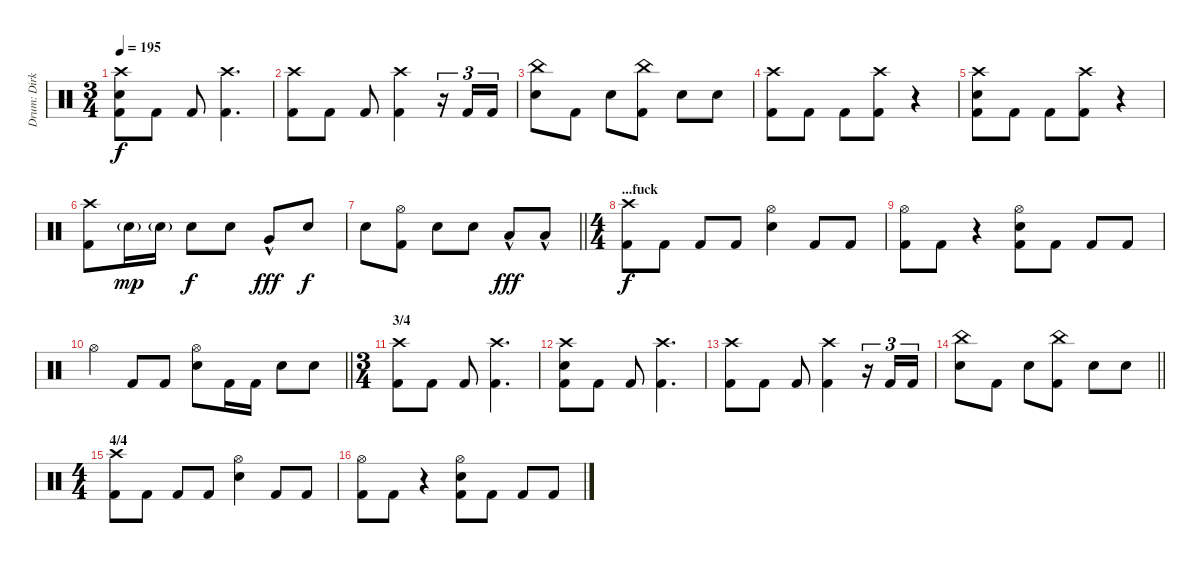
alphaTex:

\track ("Drum: Dirk" "Drum: Dirk") {instrument percussion}
\staff {score}
\articulation defaults
\ts (3 4)
\tempo 195
\clef neutral
\ks c
("Crash high (hit)" "Electric Snare (hit)" "Kick (hit) 2").8{dy f} "Kick (hit) 2".8 "Kick (hit) 2".8 ("Crash high (hit)" "Kick (hit) 2").4{d} |
("Crash high (hit)" "Kick (hit) 2").8 "Kick (hit) 2".8 "Kick (hit) 2".8 ("Crash high (hit)" "Kick (hit) 2").4 r.16{tu (3 2)} "Kick (hit) 2".16{tu (3 2)} "Kick (hit) 2".16{tu (3 2)} |
("China (hit)" "Electric Snare (hit)").8 "Kick (hit) 2".8 "Electric Snare (hit)".8 ("China (hit)" "Kick (hit) 2").8 "Electric Snare (hit)".8 "Electric Snare (hit)".8 |
("Crash high (hit)" "Kick (hit) 2").8 "Kick (hit) 2".8 "Kick (hit) 2".8 ("Crash high (hit)" "Kick (hit) 2").8 r.4 |
("Crash high (hit)" "Electric Snare (hit)" "Kick (hit) 2").8 "Kick (hit) 2".8 "Kick (hit) 2".8 ("Crash high (hit)" "Kick (hit) 2").8 r.4 |
("Crash high (hit)" "Kick (hit) 2").8 "Electric Snare (hit)"{g}.16{dy mp} "Electric Snare (hit)"{g}.16 "Electric Snare (hit)".8{dy f} "Electric Snare (hit)".8 "Very Low Tom (hit)"{hac}.8{dy fff} "Electric Snare (hit)".8{dy f} |
\barLineRight lightlight "Electric Snare (hit)".8
("Hi-Hat (open)" "Kick (hit) 2").8 "Electric Snare (hit)".8 "Electric Snare (hit)".8 "Low Tom (hit)"{hac}.8{dy fff} "Low Tom (hit)"{hac}.8 |
\ts (4 4)
\section ("" "...fuck")
("Crash high (hit)" "Kick (hit) 2").8{dy f} "Kick (hit) 2".8 "Kick (hit) 2".8 "Kick (hit) 2".8 ("Hi-Hat (open)" "Electric Snare (hit)").4 "Kick (hit) 2".8 "Kick (hit) 2".8 |
("Hi-Hat (open)" "Kick (hit) 2").8 "Kick (hit) 2".8 r.4 ("Hi-Hat (open)" "Electric Snare (hit)" "Kick (hit) 2").8 "Kick (hit) 2".8 "Kick (hit) 2".8 "Kick (hit) 2".8 |
\barLineRight lightlight "Hi-Hat (open)".4 "Kick (hit) 2".8 "Kick (hit) 2".8
("Hi-Hat (open)" "Electric Snare (hit)").8 "Kick (hit) 2".16 "Kick (hit) 2".16 "Electric Snare (hit)".8 "Electric Snare (hit)".8 |
\ts (3 4)
\section ("" "3/4")
("Crash high (hit)" "Kick (hit) 2").8 "Kick (hit) 2".8 "Kick (hit) 2".8 ("Crash high (hit)" "Kick (hit) 2").4{d} |
("Crash high (hit)" "Electric Snare (hit)" "Kick (hit) 2").8 "Kick (hit) 2".8 "Kick (hit) 2".8 ("Crash high (hit)" "Kick (hit) 2").4{d} |
("Crash high (hit)" "Kick (hit) 2").8 "Kick (hit) 2".8 "Kick (hit) 2".8 ("Crash high (hit)" "Kick (hit) 2").4 r.16{tu (3 2)} "Kick (hit) 2".16{tu (3 2)} "Kick (hit) 2".16{tu (3 2)} |
\barLineRight lightlight
("China (hit)" "Electric Snare (hit)").8 "Kick (hit) 2".8 "Electric Snare (hit)".8 ("China (hit)" "Kick (hit) 2").8 "Electric Snare (hit)".8 "Electric Snare (hit)".8 |
\ts (4 4)
\section ("" "4/4")
("Crash high (hit)" "Kick (hit) 2").8 "Kick (hit) 2".8 "Kick (hit) 2".8 "Kick (hit) 2".8 ("Hi-Hat (open)" "Electric Snare (hit)").4 "Kick (hit) 2".8 "Kick (hit) 2".8 |
("Hi-Hat (open)" "Kick (hit) 2").8 "Kick (hit) 2".8 r.4 ("Hi-Hat (open)" "Electric Snare (hit)" "Kick (hit) 2").8 "Kick (hit) 2".8 "Kick (hit) 2".8 "Kick (hit) 2".8
